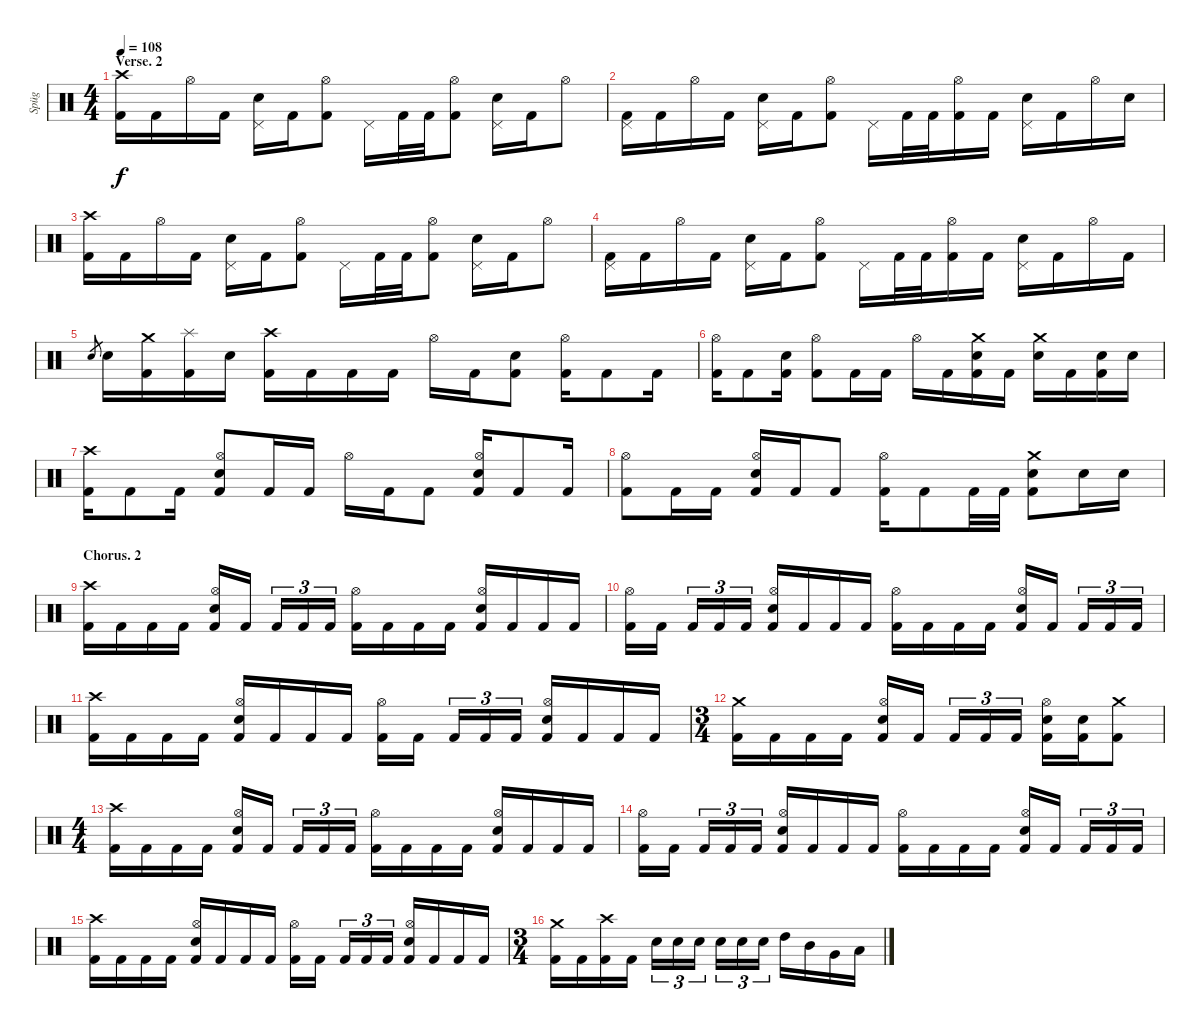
\track ("Spüg" "Spüg") {instrument percussion}
\staff {score}
\articulation defaults
\ts (4 4)
\section ("" "Verse. 2")
\tempo 108
\clef neutral
\ks c
("Crash high (hit)" "Kick (hit) 2").16{dy f} "Kick (hit) 2".16 "Hi-Hat (open)".16 "Kick (hit) 2".16 ("Pedal Hi-Hat (hit)" "Electric Snare (hit)").16 "Kick (hit) 2".16 ("Hi-Hat (open)" "Kick (hit) 2").8 "Pedal Hi-Hat (hit)".16 "Kick (hit) 2".32 "Kick (hit) 2".32 ("Hi-Hat (open)" "Kick (hit) 2").8 ("Pedal Hi-Hat (hit)" "Electric Snare (hit)").16 "Kick (hit) 2".16 "Hi-Hat (open)".8 |
("Pedal Hi-Hat (hit)" "Kick (hit) 2").16 "Kick (hit) 2".16 "Hi-Hat (open)".16 "Kick (hit) 2".16 ("Pedal Hi-Hat (hit)" "Electric Snare (hit)").16 "Kick (hit) 2".16 ("Hi-Hat (open)" "Kick (hit) 2").8 "Pedal Hi-Hat (hit)".16 "Kick (hit) 2".32 "Kick (hit) 2".32 ("Hi-Hat (open)" "Kick (hit) 2").16 "Kick (hit) 2".16 ("Pedal Hi-Hat (hit)" "Electric Snare (hit)").16 "Kick (hit) 2".16 "Hi-Hat (open)".16 "Electric Snare (hit)".16 |
("Crash high (hit)" "Kick (hit) 2").16 "Kick (hit) 2".16 "Hi-Hat (open)".16 "Kick (hit) 2".16 ("Pedal Hi-Hat (hit)" "Electric Snare (hit)").16 "Kick (hit) 2".16 ("Hi-Hat (open)" "Kick (hit) 2").8 "Pedal Hi-Hat (hit)".16 "Kick (hit) 2".32 "Kick (hit) 2".32 ("Hi-Hat (open)" "Kick (hit) 2").8 ("Pedal Hi-Hat (hit)" "Electric Snare (hit)").16 "Kick (hit) 2".16 "Hi-Hat (open)".8 |
("Pedal Hi-Hat (hit)" "Kick (hit) 2").16 "Kick (hit) 2".16 "Hi-Hat (open)".16 "Kick (hit) 2".16 ("Pedal Hi-Hat (hit)" "Electric Snare (hit)").16 "Kick (hit) 2".16 ("Hi-Hat (open)" "Kick (hit) 2").8 "Pedal Hi-Hat (hit)".16 "Kick (hit) 2".32 "Kick (hit) 2".32 ("Hi-Hat (open)" "Kick (hit) 2").16 "Kick (hit) 2".16 ("Pedal Hi-Hat (hit)" "Electric Snare (hit)").16 "Kick (hit) 2".16 "Hi-Hat (open)".16 "Kick (hit) 2".16 |
"Electric Snare (hit)".8{gr} "Electric Snare (hit)".16 ("Crash medium (hit)" "Kick (hit) 2").16 ("Splash (hit)" "Kick (hit) 2").16 "Electric Snare (hit)".16 ("Crash high (hit)" "Kick (hit) 2").16 "Kick (hit) 2".16 "Kick (hit) 2".16 "Kick (hit) 2".16 "Hi-Hat (open)".16 "Kick (hit) 2".16 ("Electric Snare (hit)" "Kick (hit) 2").8 ("Hi-Hat (open)" "Kick (hit) 2").16 "Kick (hit) 2".8 "Kick (hit) 2".16 |
("Hi-Hat (open)" "Kick (hit) 2").16 "Kick (hit) 2".8 ("Electric Snare (hit)" "Kick (hit) 2").16 ("Hi-Hat (open)" "Kick (hit) 2").8 "Kick (hit) 2".16 "Kick (hit) 2".16 "Hi-Hat (open)".16 "Kick (hit) 2".16 ("Crash medium (hit)" "Electric Snare (hit)" "Kick (hit) 2").16 "Kick (hit) 2".16 ("Crash medium (hit)" "Electric Snare (hit)").16 "Kick (hit) 2".16 ("Electric Snare (hit)" "Kick (hit) 2").16 "Electric Snare (hit)".16 |
("Crash high (hit)" "Kick (hit) 2").16 "Kick (hit) 2".8 "Kick (hit) 2".16 ("Hi-Hat (open)" "Electric Snare (hit)" "Kick (hit) 2").8 "Kick (hit) 2".16 "Kick (hit) 2".16 "Hi-Hat (open)".16 "Kick (hit) 2".16 "Kick (hit) 2".8 ("Hi-Hat (open)" "Electric Snare (hit)" "Kick (hit) 2").16 "Kick (hit) 2".8 "Kick (hit) 2".16 |
("Hi-Hat (open)" "Kick (hit) 2").8 "Kick (hit) 2".16 "Kick (hit) 2".16 ("Hi-Hat (open)" "Electric Snare (hit)" "Kick (hit) 2").16 "Kick (hit) 2".16 "Kick (hit) 2".8 ("Hi-Hat (open)" "Kick (hit) 2").16 "Kick (hit) 2".8 "Kick (hit) 2".32 "Kick (hit) 2".32 ("Crash medium (hit)" "Electric Snare (hit)" "Kick (hit) 2").8 "Electric Snare (hit)".16 "Electric Snare (hit)".16 |
\section ("" "Chorus. 2")
("Crash high (hit)" "Kick (hit) 2").16 "Kick (hit) 2".16 "Kick (hit) 2".16 "Kick (hit) 2".16 ("Hi-Hat (open)" "Electric Snare (hit)" "Kick (hit) 2").16 "Kick (hit) 2".16 "Kick (hit) 2".16{tu (3 2)} "Kick (hit) 2".16{tu (3 2)} "Kick (hit) 2".16{tu (3 2)} ("Hi-Hat (open)" "Kick (hit) 2").16 "Kick (hit) 2".16 "Kick (hit) 2".16 "Kick (hit) 2".16 ("Hi-Hat (open)" "Electric Snare (hit)" "Kick (hit) 2").16 "Kick (hit) 2".16 "Kick (hit) 2".16 "Kick (hit) 2".16 |
("Hi-Hat (open)" "Kick (hit) 2").16 "Kick (hit) 2".16 "Kick (hit) 2".16{tu (3 2)} "Kick (hit) 2".16{tu (3 2)} "Kick (hit) 2".16{tu (3 2)} ("Hi-Hat (open)" "Electric Snare (hit)" "Kick (hit) 2").16 "Kick (hit) 2".16 "Kick (hit) 2".16 "Kick (hit) 2".16 ("Hi-Hat (open)" "Kick (hit) 2").16 "Kick (hit) 2".16 "Kick (hit) 2".16 "Kick (hit) 2".16 ("Hi-Hat (open)" "Electric Snare (hit)" "Kick (hit) 2").16 "Kick (hit) 2".16 "Kick (hit) 2".16{tu (3 2)} "Kick (hit) 2".16{tu (3 2)} "Kick (hit) 2".16{tu (3 2)} |
("Crash high (hit)" "Kick (hit) 2").16 "Kick (hit) 2".16 "Kick (hit) 2".16 "Kick (hit) 2".16 ("Hi-Hat (open)" "Electric Snare (hit)" "Kick (hit) 2").16 "Kick (hit) 2".16 "Kick (hit) 2".16 "Kick (hit) 2".16 ("Hi-Hat (open)" "Kick (hit) 2").16 "Kick (hit) 2".16 "Kick (hit) 2".16{tu (3 2)} "Kick (hit) 2".16{tu (3 2)} "Kick (hit) 2".16{tu (3 2)} ("Hi-Hat (open)" "Electric Snare (hit)" "Kick (hit) 2").16 "Kick (hit) 2".16 "Kick (hit) 2".16 "Kick (hit) 2".16 |
\ts (3 4)
("Crash medium (hit)" "Kick (hit) 2").16 "Kick (hit) 2".16 "Kick (hit) 2".16 "Kick (hit) 2".16 ("Hi-Hat (open)" "Electric Snare (hit)" "Kick (hit) 2").16 "Kick (hit) 2".16 "Kick (hit) 2".16{tu (3 2)} "Kick (hit) 2".16{tu (3 2)} "Kick (hit) 2".16{tu (3 2)} ("Hi-Hat (open)" "Electric Snare (hit)" "Kick (hit) 2").16 ("Electric Snare (hit)" "Kick (hit) 2").16 ("Crash medium (hit)" "Kick (hit) 2").8 |
\ts (4 4)
("Crash high (hit)" "Kick (hit) 2").16 "Kick (hit) 2".16 "Kick (hit) 2".16 "Kick (hit) 2".16 ("Hi-Hat (open)" "Electric Snare (hit)" "Kick (hit) 2").16 "Kick (hit) 2".16 "Kick (hit) 2".16{tu (3 2)} "Kick (hit) 2".16{tu (3 2)} "Kick (hit) 2".16{tu (3 2)} ("Hi-Hat (open)" "Kick (hit) 2").16 "Kick (hit) 2".16 "Kick (hit) 2".16 "Kick (hit) 2".16 ("Hi-Hat (open)" "Electric Snare (hit)" "Kick (hit) 2").16 "Kick (hit) 2".16 "Kick (hit) 2".16 "Kick (hit) 2".16 |
("Hi-Hat (open)" "Kick (hit) 2").16 "Kick (hit) 2".16 "Kick (hit) 2".16{tu (3 2)} "Kick (hit) 2".16{tu (3 2)} "Kick (hit) 2".16{tu (3 2)} ("Hi-Hat (open)" "Electric Snare (hit)" "Kick (hit) 2").16 "Kick (hit) 2".16 "Kick (hit) 2".16 "Kick (hit) 2".16 ("Hi-Hat (open)" "Kick (hit) 2").16 "Kick (hit) 2".16 "Kick (hit) 2".16 "Kick (hit) 2".16 ("Hi-Hat (open)" "Electric Snare (hit)" "Kick (hit) 2").16 "Kick (hit) 2".16 "Kick (hit) 2".16{tu (3 2)} "Kick (hit) 2".16{tu (3 2)} "Kick (hit) 2".16{tu (3 2)} |
("Crash high (hit)" "Kick (hit) 2").16 "Kick (hit) 2".16 "Kick (hit) 2".16 "Kick (hit) 2".16 ("Hi-Hat (open)" "Electric Snare (hit)" "Kick (hit) 2").16 "Kick (hit) 2".16 "Kick (hit) 2".16 "Kick (hit) 2".16 ("Hi-Hat (open)" "Kick (hit) 2").16 "Kick (hit) 2".16 "Kick (hit) 2".16{tu (3 2)} "Kick (hit) 2".16{tu (3 2)} "Kick (hit) 2".16{tu (3 2)} ("Hi-Hat (open)" "Electric Snare (hit)" "Kick (hit) 2").16 "Kick (hit) 2".16 "Kick (hit) 2".16 "Kick (hit) 2".16 |
\ts (3 4)
("Crash medium (hit)" "Kick (hit) 2").16 "Kick (hit) 2".16 ("Crash high (hit)" "Kick (hit) 2").16 "Kick (hit) 2".16 "Electric Snare (hit)".16{tu (3 2)} "Electric Snare (hit)".16{tu (3 2)} "Electric Snare (hit)".16{tu (3 2)} "Electric Snare (hit)".16{tu (3 2)} "Electric Snare (hit)".16{tu (3 2)} "Electric Snare (hit)".16{tu (3 2)} "High Tom (hit)".16 "Mid Tom (hit)".16 "Very Low Tom (hit)".16 "Low Floor Tom (hit)".16
